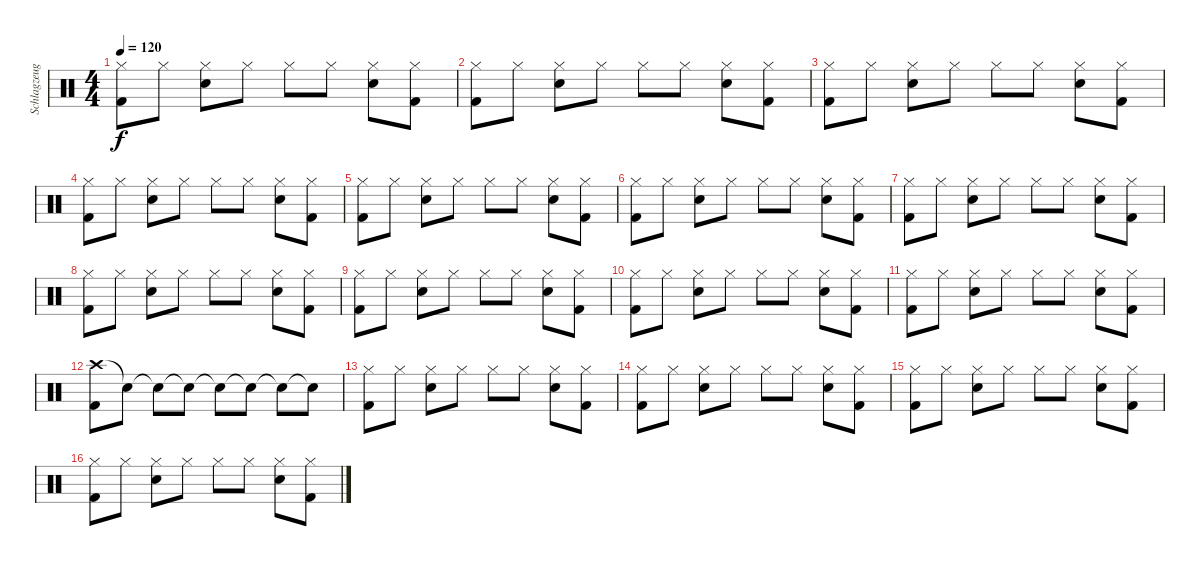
\track ("Schlagzeug" "Schlagzeug") {instrument percussion}
\staff {score}
\articulation defaults
\ts (4 4)
\tempo 120
\clef neutral
\ks c
("Kick (hit) 2" "Hi-Hat (closed)").8{dy f} "Hi-Hat (closed)".8 ("Hi-Hat (closed)" "Snare (hit) 2").8 "Hi-Hat (closed)".8 "Hi-Hat (closed)".8 "Hi-Hat (closed)".8 ("Snare (hit) 2" "Hi-Hat (closed)").8 ("Hi-Hat (closed)" "Kick (hit) 2").8 |
("Kick (hit) 2" "Hi-Hat (closed)").8 "Hi-Hat (closed)".8 ("Hi-Hat (closed)" "Snare (hit) 2").8 "Hi-Hat (closed)".8 "Hi-Hat (closed)".8 "Hi-Hat (closed)".8 ("Snare (hit) 2" "Hi-Hat (closed)").8 ("Hi-Hat (closed)" "Kick (hit) 2").8 |
("Kick (hit) 2" "Hi-Hat (closed)").8 "Hi-Hat (closed)".8 ("Hi-Hat (closed)" "Snare (hit) 2").8 "Hi-Hat (closed)".8 "Hi-Hat (closed)".8 "Hi-Hat (closed)".8 ("Snare (hit) 2" "Hi-Hat (closed)").8 ("Hi-Hat (closed)" "Kick (hit) 2").8 |
("Kick (hit) 2" "Hi-Hat (closed)").8 "Hi-Hat (closed)".8 ("Hi-Hat (closed)" "Snare (hit) 2").8 "Hi-Hat (closed)".8 "Hi-Hat (closed)".8 "Hi-Hat (closed)".8 ("Snare (hit) 2" "Hi-Hat (closed)").8 ("Hi-Hat (closed)" "Kick (hit) 2").8 |
("Kick (hit) 2" "Hi-Hat (closed)").8 "Hi-Hat (closed)".8 ("Hi-Hat (closed)" "Snare (hit) 2").8 "Hi-Hat (closed)".8 "Hi-Hat (closed)".8 "Hi-Hat (closed)".8 ("Snare (hit) 2" "Hi-Hat (closed)").8 ("Hi-Hat (closed)" "Kick (hit) 2").8 |
("Kick (hit) 2" "Hi-Hat (closed)").8 "Hi-Hat (closed)".8 ("Hi-Hat (closed)" "Snare (hit) 2").8 "Hi-Hat (closed)".8 "Hi-Hat (closed)".8 "Hi-Hat (closed)".8 ("Snare (hit) 2" "Hi-Hat (closed)").8 ("Hi-Hat (closed)" "Kick (hit) 2").8 |
("Kick (hit) 2" "Hi-Hat (closed)").8 "Hi-Hat (closed)".8 ("Hi-Hat (closed)" "Snare (hit) 2").8 "Hi-Hat (closed)".8 "Hi-Hat (closed)".8 "Hi-Hat (closed)".8 ("Snare (hit) 2" "Hi-Hat (closed)").8 ("Hi-Hat (closed)" "Kick (hit) 2").8 |
("Kick (hit) 2" "Hi-Hat (closed)").8 "Hi-Hat (closed)".8 ("Hi-Hat (closed)" "Snare (hit) 2").8 "Hi-Hat (closed)".8 "Hi-Hat (closed)".8 "Hi-Hat (closed)".8 ("Snare (hit) 2" "Hi-Hat (closed)").8 ("Hi-Hat (closed)" "Kick (hit) 2").8 |
("Kick (hit) 2" "Hi-Hat (closed)").8 "Hi-Hat (closed)".8 ("Hi-Hat (closed)" "Snare (hit) 2").8 "Hi-Hat (closed)".8 "Hi-Hat (closed)".8 "Hi-Hat (closed)".8 ("Snare (hit) 2" "Hi-Hat (closed)").8 ("Hi-Hat (closed)" "Kick (hit) 2").8 |
("Kick (hit) 2" "Hi-Hat (closed)").8 "Hi-Hat (closed)".8 ("Hi-Hat (closed)" "Snare (hit) 2").8 "Hi-Hat (closed)".8 "Hi-Hat (closed)".8 "Hi-Hat (closed)".8 ("Snare (hit) 2" "Hi-Hat (closed)").8 ("Hi-Hat (closed)" "Kick (hit) 2").8 |
("Kick (hit) 2" "Hi-Hat (closed)").8 "Hi-Hat (closed)".8 ("Hi-Hat (closed)" "Snare (hit) 2").8 "Hi-Hat (closed)".8 "Hi-Hat (closed)".8 "Hi-Hat (closed)".8 ("Snare (hit) 2" "Hi-Hat (closed)").8 ("Hi-Hat (closed)" "Kick (hit) 2").8 |
("Crash high (hit)" "Kick (hit) 2").8 "Snare (hit)"{t}.8 "Snare (hit)"{t}.8 "Snare (hit)"{t}.8 "Snare (hit)"{t}.8 "Snare (hit)"{t}.8 "Snare (hit)"{t}.8 "Snare (hit)"{t}.8 |
("Kick (hit) 2" "Hi-Hat (closed)").8 "Hi-Hat (closed)".8 ("Hi-Hat (closed)" "Snare (hit) 2").8 "Hi-Hat (closed)".8 "Hi-Hat (closed)".8 "Hi-Hat (closed)".8 ("Snare (hit) 2" "Hi-Hat (closed)").8 ("Hi-Hat (closed)" "Kick (hit) 2").8 |
("Kick (hit) 2" "Hi-Hat (closed)").8 "Hi-Hat (closed)".8 ("Hi-Hat (closed)" "Snare (hit) 2").8 "Hi-Hat (closed)".8 "Hi-Hat (closed)".8 "Hi-Hat (closed)".8 ("Snare (hit) 2" "Hi-Hat (closed)").8 ("Hi-Hat (closed)" "Kick (hit) 2").8 |
("Kick (hit) 2" "Hi-Hat (closed)").8 "Hi-Hat (closed)".8 ("Hi-Hat (closed)" "Snare (hit) 2").8 "Hi-Hat (closed)".8 "Hi-Hat (closed)".8 "Hi-Hat (closed)".8 ("Snare (hit) 2" "Hi-Hat (closed)").8 ("Hi-Hat (closed)" "Kick (hit) 2").8 |
("Kick (hit) 2" "Hi-Hat (closed)").8 "Hi-Hat (closed)".8 ("Hi-Hat (closed)" "Snare (hit) 2").8 "Hi-Hat (closed)".8 "Hi-Hat (closed)".8 "Hi-Hat (closed)".8 ("Snare (hit) 2" "Hi-Hat (closed)").8 ("Hi-Hat (closed)" "Kick (hit) 2").8
